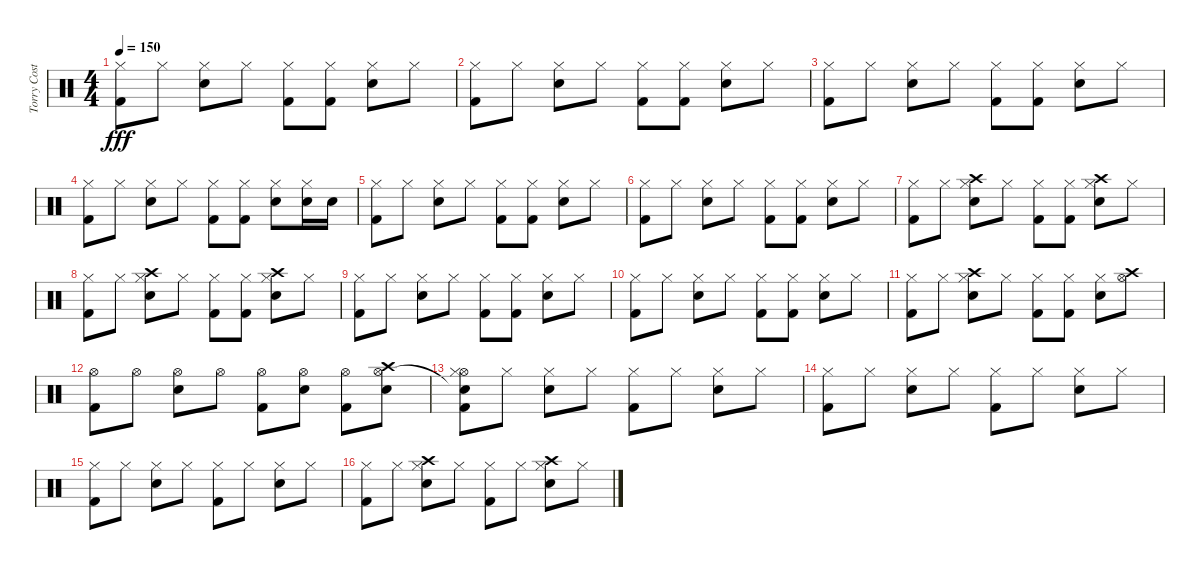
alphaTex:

\track ("Torry Costellano" "Torry Cost") {instrument percussion}
\staff {score}
\articulation defaults
\ts (4 4)
\tempo 150
\clef neutral
\ks c
("Hi-Hat (closed)" "Kick (hit) 2").8{dy fff} "Hi-Hat (closed)".8 ("Hi-Hat (closed)" "Electric Snare (hit)").8 "Hi-Hat (closed)".8 ("Hi-Hat (closed)" "Kick (hit) 2").8 ("Hi-Hat (closed)" "Kick (hit) 2").8 ("Hi-Hat (closed)" "Electric Snare (hit)").8 "Hi-Hat (closed)".8 |
("Hi-Hat (closed)" "Kick (hit) 2").8 "Hi-Hat (closed)".8 ("Hi-Hat (closed)" "Electric Snare (hit)").8 "Hi-Hat (closed)".8 ("Hi-Hat (closed)" "Kick (hit) 2").8 ("Hi-Hat (closed)" "Kick (hit) 2").8 ("Hi-Hat (closed)" "Electric Snare (hit)").8 "Hi-Hat (closed)".8 |
("Hi-Hat (closed)" "Kick (hit) 2").8 "Hi-Hat (closed)".8 ("Hi-Hat (closed)" "Electric Snare (hit)").8 "Hi-Hat (closed)".8 ("Hi-Hat (closed)" "Kick (hit) 2").8 ("Hi-Hat (closed)" "Kick (hit) 2").8 ("Hi-Hat (closed)" "Electric Snare (hit)").8 "Hi-Hat (closed)".8 |
("Hi-Hat (closed)" "Kick (hit) 2").8 "Hi-Hat (closed)".8 ("Hi-Hat (closed)" "Electric Snare (hit)").8 "Hi-Hat (closed)".8 ("Hi-Hat (closed)" "Kick (hit) 2").8 ("Hi-Hat (closed)" "Kick (hit) 2").8 ("Hi-Hat (closed)" "Electric Snare (hit)").8 ("Hi-Hat (closed)" "Electric Snare (hit)").16 "Electric Snare (hit)".16 |
("Hi-Hat (closed)" "Kick (hit) 2").8 "Hi-Hat (closed)".8 ("Hi-Hat (closed)" "Electric Snare (hit)").8 "Hi-Hat (closed)".8 ("Hi-Hat (closed)" "Kick (hit) 2").8 ("Hi-Hat (closed)" "Kick (hit) 2").8 ("Hi-Hat (closed)" "Electric Snare (hit)").8 "Hi-Hat (closed)".8 |
("Hi-Hat (closed)" "Kick (hit) 2").8 "Hi-Hat (closed)".8 ("Hi-Hat (closed)" "Electric Snare (hit)").8 "Hi-Hat (closed)".8 ("Hi-Hat (closed)" "Kick (hit) 2").8 ("Hi-Hat (closed)" "Kick (hit) 2").8 ("Hi-Hat (closed)" "Electric Snare (hit)").8 "Hi-Hat (closed)".8 |
("Hi-Hat (closed)" "Kick (hit) 2").8 "Hi-Hat (closed)".8 ("Crash high (hit)" "Hi-Hat (closed)" "Electric Snare (hit)").8 "Hi-Hat (closed)".8 ("Hi-Hat (closed)" "Kick (hit) 2").8 ("Hi-Hat (closed)" "Kick (hit) 2").8 ("Crash high (hit)" "Hi-Hat (closed)" "Electric Snare (hit)").8 "Hi-Hat (closed)".8 |
("Hi-Hat (closed)" "Kick (hit) 2").8 "Hi-Hat (closed)".8 ("Crash high (hit)" "Hi-Hat (closed)" "Electric Snare (hit)").8 "Hi-Hat (closed)".8 ("Hi-Hat (closed)" "Kick (hit) 2").8 ("Hi-Hat (closed)" "Kick (hit) 2").8 ("Crash high (hit)" "Hi-Hat (closed)" "Electric Snare (hit)").8 "Hi-Hat (closed)".8 |
("Hi-Hat (closed)" "Kick (hit) 2").8 "Hi-Hat (closed)".8 ("Hi-Hat (closed)" "Electric Snare (hit)").8 "Hi-Hat (closed)".8 ("Hi-Hat (closed)" "Kick (hit) 2").8 ("Hi-Hat (closed)" "Kick (hit) 2").8 ("Hi-Hat (closed)" "Electric Snare (hit)").8 "Hi-Hat (closed)".8 |
("Hi-Hat (closed)" "Kick (hit) 2").8 "Hi-Hat (closed)".8 ("Hi-Hat (closed)" "Electric Snare (hit)").8 "Hi-Hat (closed)".8 ("Hi-Hat (closed)" "Kick (hit) 2").8 ("Hi-Hat (closed)" "Kick (hit) 2").8 ("Hi-Hat (closed)" "Electric Snare (hit)").8 "Hi-Hat (closed)".8 |
("Hi-Hat (closed)" "Kick (hit) 2").8 "Hi-Hat (closed)".8 ("Crash high (hit)" "Hi-Hat (closed)" "Electric Snare (hit)").8 "Hi-Hat (closed)".8 ("Hi-Hat (closed)" "Kick (hit) 2").8 ("Hi-Hat (closed)" "Kick (hit) 2").8 ("Hi-Hat (closed)" "Electric Snare (hit)").8 ("Crash high (hit)" "Hi-Hat (open)").8 |
("Hi-Hat (open)" "Kick (hit) 2").8 "Hi-Hat (open)".8 ("Hi-Hat (open)" "Electric Snare (hit)").8 "Hi-Hat (open)".8 ("Hi-Hat (open)" "Kick (hit) 2").8 ("Hi-Hat (open)" "Electric Snare (hit)").8 ("Hi-Hat (open)" "Kick (hit) 2").8 ("Crash high (hit)" "Hi-Hat (open)" "Electric Snare (hit)").8 |
("Hi-Hat (open)" "Snare (hit)"{t} "Hi-Hat (closed)" "Kick (hit) 2").8 "Hi-Hat (closed)".8 ("Hi-Hat (closed)" "Electric Snare (hit)").8 "Hi-Hat (closed)".8 ("Hi-Hat (closed)" "Kick (hit) 2").8 "Hi-Hat (closed)".8 ("Hi-Hat (closed)" "Electric Snare (hit)").8 "Hi-Hat (closed)".8 |
("Hi-Hat (closed)" "Kick (hit) 2").8 "Hi-Hat (closed)".8 ("Hi-Hat (closed)" "Electric Snare (hit)").8 "Hi-Hat (closed)".8 ("Hi-Hat (closed)" "Kick (hit) 2").8 "Hi-Hat (closed)".8 ("Hi-Hat (closed)" "Electric Snare (hit)").8 "Hi-Hat (closed)".8 |
("Hi-Hat (closed)" "Kick (hit) 2").8 "Hi-Hat (closed)".8 ("Hi-Hat (closed)" "Electric Snare (hit)").8 "Hi-Hat (closed)".8 ("Hi-Hat (closed)" "Kick (hit) 2").8 "Hi-Hat (closed)".8 ("Hi-Hat (closed)" "Electric Snare (hit)").8 "Hi-Hat (closed)".8 |
("Hi-Hat (closed)" "Kick (hit) 2").8 "Hi-Hat (closed)".8 ("Crash high (hit)" "Hi-Hat (closed)" "Electric Snare (hit)").8 "Hi-Hat (closed)".8 ("Hi-Hat (closed)" "Kick (hit) 2").8 "Hi-Hat (closed)".8 ("Crash high (hit)" "Hi-Hat (closed)" "Electric Snare (hit)").8 "Hi-Hat (closed)".8
